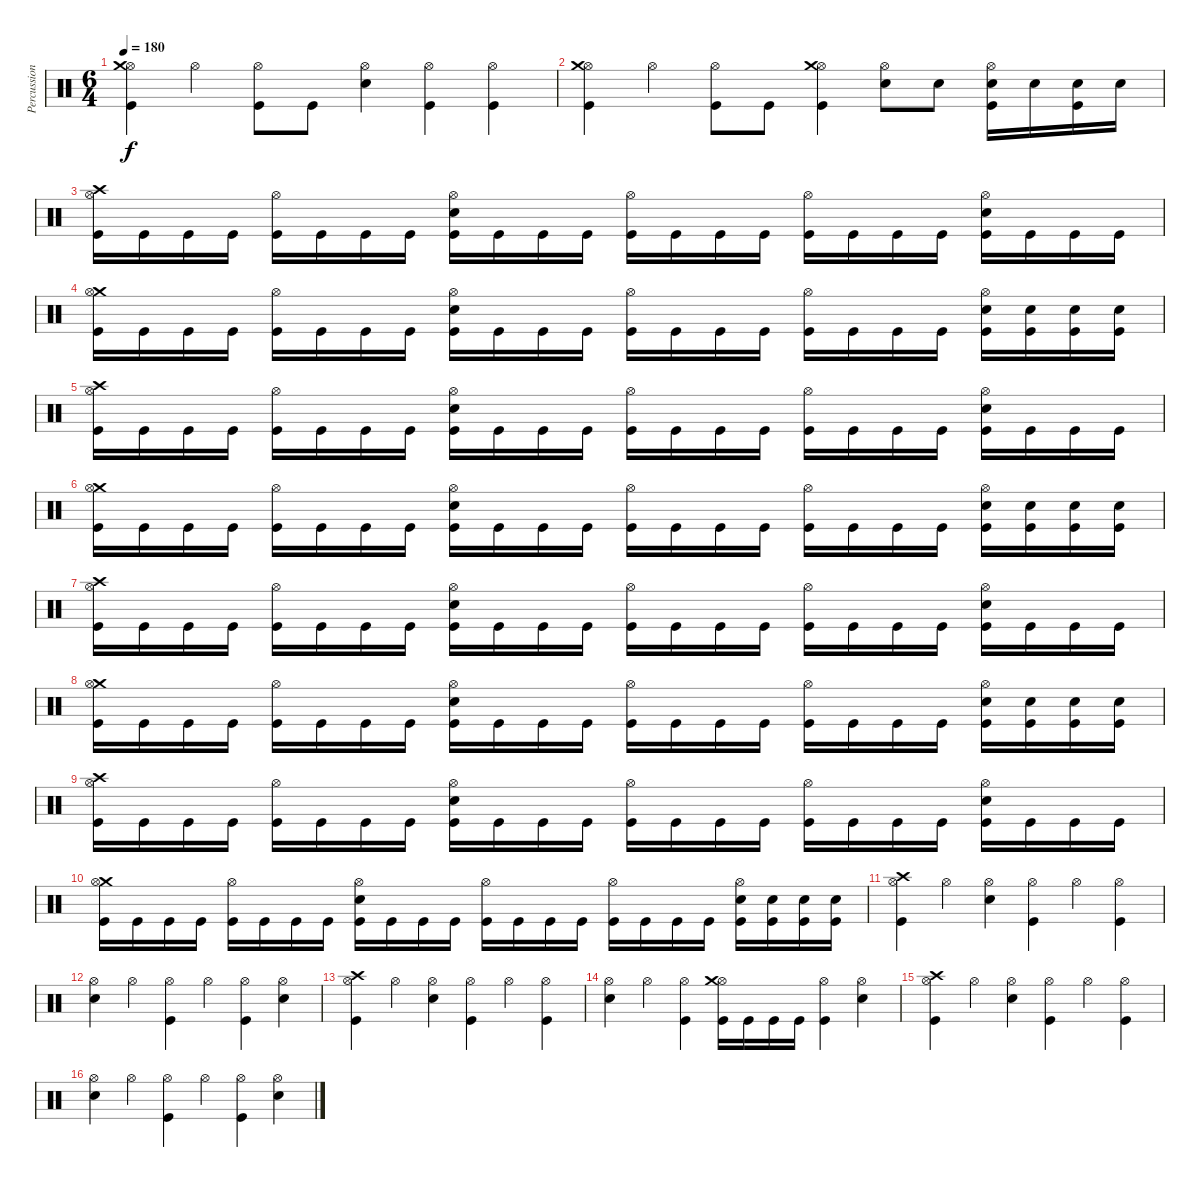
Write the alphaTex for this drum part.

\track ("Percussion" "Percussion") {instrument percussion}
\staff {score}
\articulation defaults
\ts (6 4)
\tempo 180
\clef neutral
\ks c
("Hi-Hat (open)" "Crash medium (hit)" "Kick (hit)").4{dy f} "Hi-Hat (open)".4 ("Hi-Hat (open)" "Kick (hit)").8 "Kick (hit)".8 ("Hi-Hat (open)" "Electric Snare (hit)").4 ("Hi-Hat (open)" "Kick (hit)").4 ("Hi-Hat (open)" "Kick (hit)").4 |
("Hi-Hat (open)" "Crash medium (hit)" "Kick (hit)").4 "Hi-Hat (open)".4 ("Hi-Hat (open)" "Kick (hit)").8 "Kick (hit)".8 ("Hi-Hat (open)" "Crash medium (hit)" "Kick (hit)").4 ("Hi-Hat (open)" "Electric Snare (hit)").8 "Electric Snare (hit)".8 ("Hi-Hat (open)" "Electric Snare (hit)" "Kick (hit)").16 "Electric Snare (hit)".16 ("Electric Snare (hit)" "Kick (hit)").16 "Electric Snare (hit)".16 |
("Crash high (hit)" "Hi-Hat (open)" "Kick (hit)").16 "Kick (hit)".16 "Kick (hit)".16 "Kick (hit)".16 ("Hi-Hat (open)" "Kick (hit)").16 "Kick (hit)".16 "Kick (hit)".16 "Kick (hit)".16 ("Electric Snare (hit)" "Hi-Hat (open)" "Kick (hit)").16 "Kick (hit)".16 "Kick (hit)".16 "Kick (hit)".16 ("Hi-Hat (open)" "Kick (hit)").16 "Kick (hit)".16 "Kick (hit)".16 "Kick (hit)".16 ("Hi-Hat (open)" "Kick (hit)").16 "Kick (hit)".16 "Kick (hit)".16 "Kick (hit)".16 ("Electric Snare (hit)" "Hi-Hat (open)" "Kick (hit)").16 "Kick (hit)".16 "Kick (hit)".16 "Kick (hit)".16 |
("Crash medium (hit)" "Hi-Hat (open)" "Kick (hit)").16 "Kick (hit)".16 "Kick (hit)".16 "Kick (hit)".16 ("Hi-Hat (open)" "Kick (hit)").16 "Kick (hit)".16 "Kick (hit)".16 "Kick (hit)".16 ("Electric Snare (hit)" "Hi-Hat (open)" "Kick (hit)").16 "Kick (hit)".16 "Kick (hit)".16 "Kick (hit)".16 ("Hi-Hat (open)" "Kick (hit)").16 "Kick (hit)".16 "Kick (hit)".16 "Kick (hit)".16 ("Hi-Hat (open)" "Kick (hit)").16 "Kick (hit)".16 "Kick (hit)".16 "Kick (hit)".16 ("Electric Snare (hit)" "Hi-Hat (open)" "Kick (hit)").16 ("Electric Snare (hit)" "Kick (hit)").16 ("Electric Snare (hit)" "Kick (hit)").16 ("Electric Snare (hit)" "Kick (hit)").16 |
("Crash high (hit)" "Hi-Hat (open)" "Kick (hit)").16 "Kick (hit)".16 "Kick (hit)".16 "Kick (hit)".16 ("Hi-Hat (open)" "Kick (hit)").16 "Kick (hit)".16 "Kick (hit)".16 "Kick (hit)".16 ("Electric Snare (hit)" "Hi-Hat (open)" "Kick (hit)").16 "Kick (hit)".16 "Kick (hit)".16 "Kick (hit)".16 ("Hi-Hat (open)" "Kick (hit)").16 "Kick (hit)".16 "Kick (hit)".16 "Kick (hit)".16 ("Hi-Hat (open)" "Kick (hit)").16 "Kick (hit)".16 "Kick (hit)".16 "Kick (hit)".16 ("Electric Snare (hit)" "Hi-Hat (open)" "Kick (hit)").16 "Kick (hit)".16 "Kick (hit)".16 "Kick (hit)".16 |
("Crash medium (hit)" "Hi-Hat (open)" "Kick (hit)").16 "Kick (hit)".16 "Kick (hit)".16 "Kick (hit)".16 ("Hi-Hat (open)" "Kick (hit)").16 "Kick (hit)".16 "Kick (hit)".16 "Kick (hit)".16 ("Electric Snare (hit)" "Hi-Hat (open)" "Kick (hit)").16 "Kick (hit)".16 "Kick (hit)".16 "Kick (hit)".16 ("Hi-Hat (open)" "Kick (hit)").16 "Kick (hit)".16 "Kick (hit)".16 "Kick (hit)".16 ("Hi-Hat (open)" "Kick (hit)").16 "Kick (hit)".16 "Kick (hit)".16 "Kick (hit)".16 ("Electric Snare (hit)" "Hi-Hat (open)" "Kick (hit)").16 ("Electric Snare (hit)" "Kick (hit)").16 ("Electric Snare (hit)" "Kick (hit)").16 ("Electric Snare (hit)" "Kick (hit)").16 |
("Crash high (hit)" "Hi-Hat (open)" "Kick (hit)").16 "Kick (hit)".16 "Kick (hit)".16 "Kick (hit)".16 ("Hi-Hat (open)" "Kick (hit)").16 "Kick (hit)".16 "Kick (hit)".16 "Kick (hit)".16 ("Electric Snare (hit)" "Hi-Hat (open)" "Kick (hit)").16 "Kick (hit)".16 "Kick (hit)".16 "Kick (hit)".16 ("Hi-Hat (open)" "Kick (hit)").16 "Kick (hit)".16 "Kick (hit)".16 "Kick (hit)".16 ("Hi-Hat (open)" "Kick (hit)").16 "Kick (hit)".16 "Kick (hit)".16 "Kick (hit)".16 ("Electric Snare (hit)" "Hi-Hat (open)" "Kick (hit)").16 "Kick (hit)".16 "Kick (hit)".16 "Kick (hit)".16 |
("Crash medium (hit)" "Hi-Hat (open)" "Kick (hit)").16 "Kick (hit)".16 "Kick (hit)".16 "Kick (hit)".16 ("Hi-Hat (open)" "Kick (hit)").16 "Kick (hit)".16 "Kick (hit)".16 "Kick (hit)".16 ("Electric Snare (hit)" "Hi-Hat (open)" "Kick (hit)").16 "Kick (hit)".16 "Kick (hit)".16 "Kick (hit)".16 ("Hi-Hat (open)" "Kick (hit)").16 "Kick (hit)".16 "Kick (hit)".16 "Kick (hit)".16 ("Hi-Hat (open)" "Kick (hit)").16 "Kick (hit)".16 "Kick (hit)".16 "Kick (hit)".16 ("Electric Snare (hit)" "Hi-Hat (open)" "Kick (hit)").16 ("Electric Snare (hit)" "Kick (hit)").16 ("Electric Snare (hit)" "Kick (hit)").16 ("Electric Snare (hit)" "Kick (hit)").16 |
("Crash high (hit)" "Hi-Hat (open)" "Kick (hit)").16 "Kick (hit)".16 "Kick (hit)".16 "Kick (hit)".16 ("Hi-Hat (open)" "Kick (hit)").16 "Kick (hit)".16 "Kick (hit)".16 "Kick (hit)".16 ("Electric Snare (hit)" "Hi-Hat (open)" "Kick (hit)").16 "Kick (hit)".16 "Kick (hit)".16 "Kick (hit)".16 ("Hi-Hat (open)" "Kick (hit)").16 "Kick (hit)".16 "Kick (hit)".16 "Kick (hit)".16 ("Hi-Hat (open)" "Kick (hit)").16 "Kick (hit)".16 "Kick (hit)".16 "Kick (hit)".16 ("Electric Snare (hit)" "Hi-Hat (open)" "Kick (hit)").16 "Kick (hit)".16 "Kick (hit)".16 "Kick (hit)".16 |
("Crash medium (hit)" "Hi-Hat (open)" "Kick (hit)").16 "Kick (hit)".16 "Kick (hit)".16 "Kick (hit)".16 ("Hi-Hat (open)" "Kick (hit)").16 "Kick (hit)".16 "Kick (hit)".16 "Kick (hit)".16 ("Electric Snare (hit)" "Hi-Hat (open)" "Kick (hit)").16 "Kick (hit)".16 "Kick (hit)".16 "Kick (hit)".16 ("Hi-Hat (open)" "Kick (hit)").16 "Kick (hit)".16 "Kick (hit)".16 "Kick (hit)".16 ("Hi-Hat (open)" "Kick (hit)").16 "Kick (hit)".16 "Kick (hit)".16 "Kick (hit)".16 ("Electric Snare (hit)" "Hi-Hat (open)" "Kick (hit)").16 ("Electric Snare (hit)" "Kick (hit)").16 ("Electric Snare (hit)" "Kick (hit)").16 ("Electric Snare (hit)" "Kick (hit)").16 |
("Crash high (hit)" "Hi-Hat (open)" "Kick (hit)").4 "Hi-Hat (open)".4 ("Hi-Hat (open)" "Electric Snare (hit)").4 ("Hi-Hat (open)" "Kick (hit)").4 "Hi-Hat (open)".4 ("Hi-Hat (open)" "Kick (hit)").4 |
("Hi-Hat (open)" "Electric Snare (hit)").4 "Hi-Hat (open)".4 ("Hi-Hat (open)" "Kick (hit)").4 "Hi-Hat (open)".4 ("Hi-Hat (open)" "Kick (hit)").4 ("Hi-Hat (open)" "Electric Snare (hit)").4 |
("Crash high (hit)" "Hi-Hat (open)" "Kick (hit)").4 "Hi-Hat (open)".4 ("Hi-Hat (open)" "Electric Snare (hit)").4 ("Hi-Hat (open)" "Kick (hit)").4 "Hi-Hat (open)".4 ("Hi-Hat (open)" "Kick (hit)").4 |
("Hi-Hat (open)" "Electric Snare (hit)").4 "Hi-Hat (open)".4 ("Hi-Hat (open)" "Kick (hit)").4 ("Hi-Hat (open)" "Crash medium (hit)" "Kick (hit)").16 "Kick (hit)".16 "Kick (hit)".16 "Kick (hit)".16 ("Hi-Hat (open)" "Kick (hit)").4 ("Hi-Hat (open)" "Electric Snare (hit)").4 |
("Crash high (hit)" "Hi-Hat (open)" "Kick (hit)").4 "Hi-Hat (open)".4 ("Hi-Hat (open)" "Electric Snare (hit)").4 ("Hi-Hat (open)" "Kick (hit)").4 "Hi-Hat (open)".4 ("Hi-Hat (open)" "Kick (hit)").4 |
("Hi-Hat (open)" "Electric Snare (hit)").4 "Hi-Hat (open)".4 ("Hi-Hat (open)" "Kick (hit)").4 "Hi-Hat (open)".4 ("Hi-Hat (open)" "Kick (hit)").4 ("Hi-Hat (open)" "Electric Snare (hit)").4
